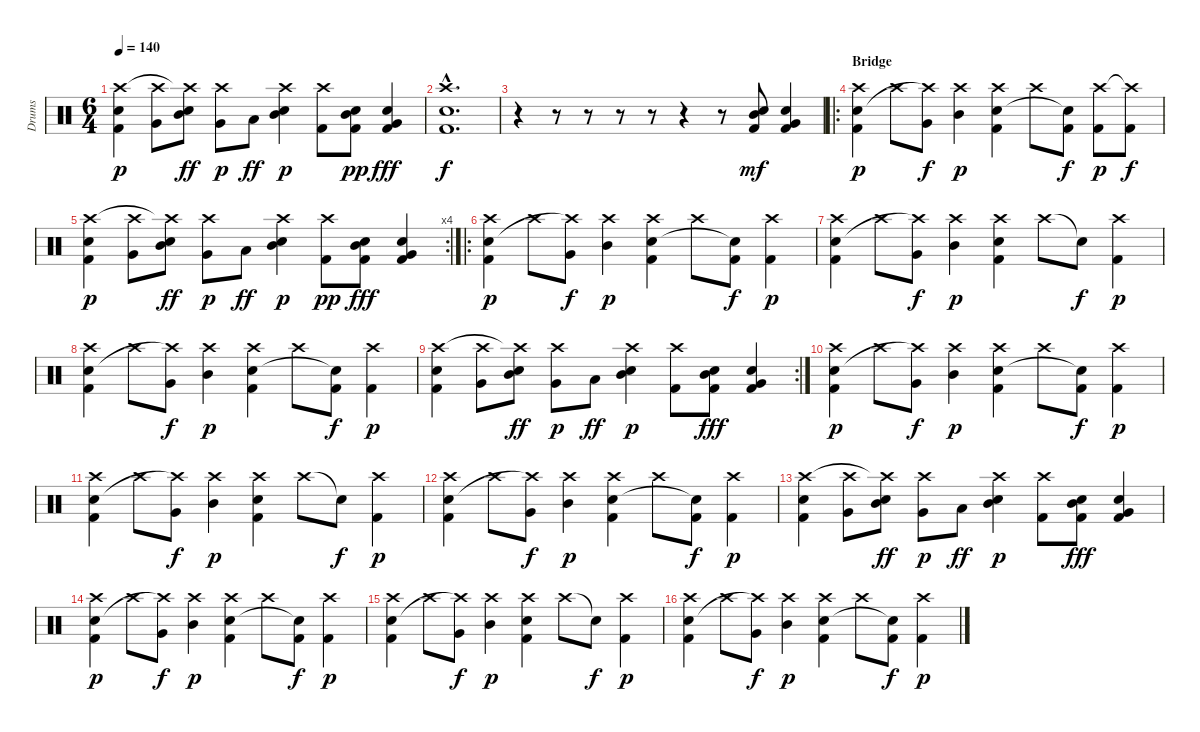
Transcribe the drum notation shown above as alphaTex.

\track ("Drums" "Drums") {instrument percussion}
\staff {score}
\articulation defaults
\ts (6 4)
\tempo 140
\clef neutral
\ks c
("Kick (hit) 2" "Electric Snare (hit)" "Crash high (hit)").4{dy p} ("Very Low Tom (hit)" "Crash high (hit)").8 ("Mid Tom (hit)" "Electric Snare (hit)" "Crash high (hit)"{t}).8{dy ff} ("Very Low Tom (hit)" "Crash high (hit)").8{dy p} "Low Floor Tom (hit)".8{dy ff} ("Mid Tom (hit)" "Electric Snare (hit)" "Crash high (hit)").4{dy p} ("Kick (hit) 2" "Crash high (hit)").8 ("Kick (hit) 2" "Mid Tom (hit)" "Electric Snare (hit)").8{dy pp} ("Kick (hit) 2" "Very Low Tom (hit)" "Electric Snare (hit)").4{dy fff} |
("Kick (hit) 2"{hac} "Electric Snare (hit)"{hac} "Crash high (hit)"{hac}).1{d dy f} |
r.4 r.8 r.8 r.8 r.8 r.4 r.8 ("Kick (hit) 2" "Mid Tom (hit)" "Snare (hit) 2").8{dy mf} ("Kick (hit) 2" "Very Low Tom (hit)" "Snare (hit) 2").4 |
\ro
\section ("" "Bridge")
("Kick (hit) 2" "Electric Snare (hit)" "Crash high (hit)").4{dy p} "Crash high (hit)".8 ("Very Low Tom (hit)" "Crash high (hit)"{t}).8{dy f} ("Mid Tom (hit)" "Crash high (hit)").4{dy p} ("Kick (hit) 2" "Electric Snare (hit)" "Crash high (hit)").4 "Crash high (hit)".8 ("Kick (hit) 2" "Snare (hit)"{t}).8{dy f} ("Kick (hit) 2" "Crash high (hit)").8{dy p} ("Kick (hit) 2" "Crash high (hit)"{t}).8{dy f} |
\rc 4
("Kick (hit) 2" "Electric Snare (hit)" "Crash high (hit)").4{dy p} ("Very Low Tom (hit)" "Crash high (hit)").8 ("Mid Tom (hit)" "Electric Snare (hit)" "Crash high (hit)"{t}).8{dy ff} ("Very Low Tom (hit)" "Crash high (hit)").8{dy p} "Low Floor Tom (hit)".8{dy ff} ("Mid Tom (hit)" "Electric Snare (hit)" "Crash high (hit)").4{dy p} ("Kick (hit) 2" "Crash high (hit)").8{dy pp} ("Kick (hit) 2" "Mid Tom (hit)" "Electric Snare (hit)").8{dy fff} ("Kick (hit) 2" "Very Low Tom (hit)" "Electric Snare (hit)").4 |
\ro
("Kick (hit) 2" "Electric Snare (hit)" "Crash high (hit)").4{dy p} "Crash high (hit)".8 ("Very Low Tom (hit)" "Crash high (hit)"{t}).8{dy f} ("Mid Tom (hit)" "Crash high (hit)").4{dy p} ("Kick (hit) 2" "Electric Snare (hit)" "Crash high (hit)").4 "Crash high (hit)".8 ("Kick (hit) 2" "Snare (hit)"{t}).8{dy f} ("Kick (hit) 2" "Crash high (hit)").4{dy p} |
("Kick (hit) 2" "Electric Snare (hit)" "Crash high (hit)").4 "Crash high (hit)".8 ("Very Low Tom (hit)" "Crash high (hit)"{t}).8{dy f} ("Mid Tom (hit)" "Crash high (hit)").4{dy p} ("Kick (hit) 2" "Electric Snare (hit)" "Crash high (hit)").4 "Crash high (hit)".8 "Snare (hit)"{t}.8{dy f} ("Kick (hit) 2" "Crash high (hit)").4{dy p} |
("Kick (hit) 2" "Electric Snare (hit)" "Crash high (hit)").4 "Crash high (hit)".8 ("Very Low Tom (hit)" "Crash high (hit)"{t}).8{dy f} ("Mid Tom (hit)" "Crash high (hit)").4{dy p} ("Kick (hit) 2" "Electric Snare (hit)" "Crash high (hit)").4 "Crash high (hit)".8 ("Kick (hit) 2" "Snare (hit)"{t}).8{dy f} ("Kick (hit) 2" "Crash high (hit)").4{dy p} |
\rc 2
("Kick (hit) 2" "Electric Snare (hit)" "Crash high (hit)").4 ("Very Low Tom (hit)" "Crash high (hit)").8 ("Mid Tom (hit)" "Electric Snare (hit)" "Crash high (hit)"{t}).8{dy ff} ("Very Low Tom (hit)" "Crash high (hit)").8{dy p} "Low Floor Tom (hit)".8{dy ff} ("Mid Tom (hit)" "Electric Snare (hit)" "Crash high (hit)").4{dy p} ("Kick (hit) 2" "Crash high (hit)").8 ("Kick (hit) 2" "Mid Tom (hit)" "Electric Snare (hit)").8{dy fff} ("Kick (hit) 2" "Very Low Tom (hit)" "Electric Snare (hit)").4 |
("Kick (hit) 2" "Electric Snare (hit)" "Crash high (hit)").4{dy p} "Crash high (hit)".8 ("Very Low Tom (hit)" "Crash high (hit)"{t}).8{dy f} ("Mid Tom (hit)" "Crash high (hit)").4{dy p} ("Kick (hit) 2" "Electric Snare (hit)" "Crash high (hit)").4 "Crash high (hit)".8 ("Kick (hit) 2" "Snare (hit)"{t}).8{dy f} ("Kick (hit) 2" "Crash high (hit)").4{dy p} |
("Kick (hit) 2" "Electric Snare (hit)" "Crash high (hit)").4 "Crash high (hit)".8 ("Very Low Tom (hit)" "Crash high (hit)"{t}).8{dy f} ("Mid Tom (hit)" "Crash high (hit)").4{dy p} ("Kick (hit) 2" "Electric Snare (hit)" "Crash high (hit)").4 "Crash high (hit)".8 "Snare (hit)"{t}.8{dy f} ("Kick (hit) 2" "Crash high (hit)").4{dy p} |
("Kick (hit) 2" "Electric Snare (hit)" "Crash high (hit)").4 "Crash high (hit)".8 ("Very Low Tom (hit)" "Crash high (hit)"{t}).8{dy f} ("Mid Tom (hit)" "Crash high (hit)").4{dy p} ("Kick (hit) 2" "Electric Snare (hit)" "Crash high (hit)").4 "Crash high (hit)".8 ("Kick (hit) 2" "Snare (hit)"{t}).8{dy f} ("Kick (hit) 2" "Crash high (hit)").4{dy p} |
("Kick (hit) 2" "Electric Snare (hit)" "Crash high (hit)").4 ("Very Low Tom (hit)" "Crash high (hit)").8 ("Mid Tom (hit)" "Electric Snare (hit)" "Crash high (hit)"{t}).8{dy ff} ("Very Low Tom (hit)" "Crash high (hit)").8{dy p} "Low Floor Tom (hit)".8{dy ff} ("Mid Tom (hit)" "Electric Snare (hit)" "Crash high (hit)").4{dy p} ("Kick (hit) 2" "Crash high (hit)").8 ("Kick (hit) 2" "Mid Tom (hit)" "Electric Snare (hit)").8{dy fff} ("Kick (hit) 2" "Very Low Tom (hit)" "Electric Snare (hit)").4 |
("Kick (hit) 2" "Electric Snare (hit)" "Crash high (hit)").4{dy p} "Crash high (hit)".8 ("Very Low Tom (hit)" "Crash high (hit)"{t}).8{dy f} ("Mid Tom (hit)" "Crash high (hit)").4{dy p} ("Kick (hit) 2" "Electric Snare (hit)" "Crash high (hit)").4 "Crash high (hit)".8 ("Kick (hit) 2" "Snare (hit)"{t}).8{dy f} ("Kick (hit) 2" "Crash high (hit)").4{dy p} |
("Kick (hit) 2" "Electric Snare (hit)" "Crash high (hit)").4 "Crash high (hit)".8 ("Very Low Tom (hit)" "Crash high (hit)"{t}).8{dy f} ("Mid Tom (hit)" "Crash high (hit)").4{dy p} ("Kick (hit) 2" "Electric Snare (hit)" "Crash high (hit)").4 "Crash high (hit)".8 "Snare (hit)"{t}.8{dy f} ("Kick (hit) 2" "Crash high (hit)").4{dy p} |
("Kick (hit) 2" "Electric Snare (hit)" "Crash high (hit)").4 "Crash high (hit)".8 ("Very Low Tom (hit)" "Crash high (hit)"{t}).8{dy f} ("Mid Tom (hit)" "Crash high (hit)").4{dy p} ("Kick (hit) 2" "Electric Snare (hit)" "Crash high (hit)").4 "Crash high (hit)".8 ("Kick (hit) 2" "Snare (hit)"{t}).8{dy f} ("Kick (hit) 2" "Crash high (hit)").4{dy p}
